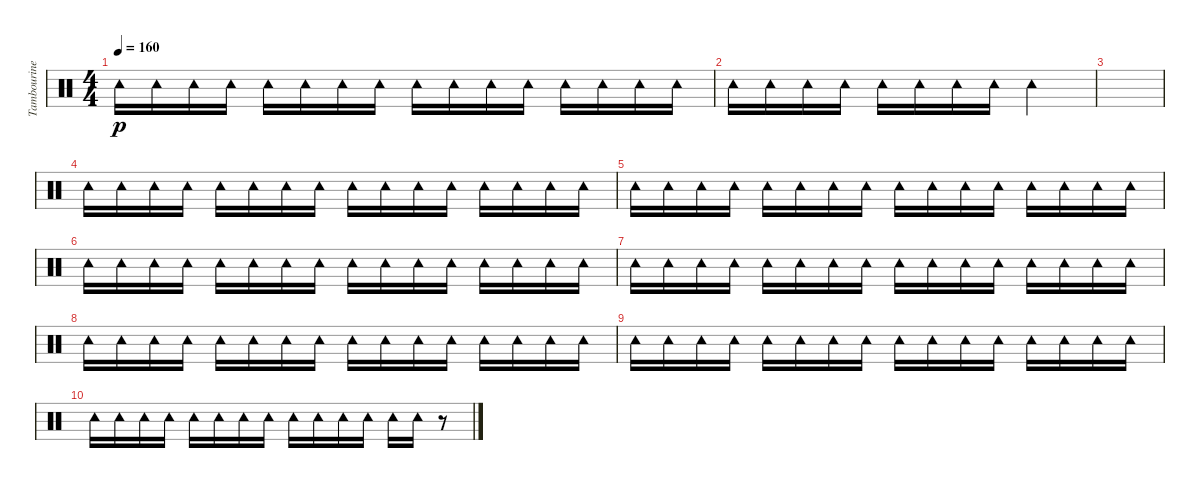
\track ("Tambourine" "Tambourine") {instrument percussion}
\staff {score}
\articulation defaults
\ts (4 4)
\tempo 160
\clef neutral
\ks c "Tambourine (hit)".16{dy p} "Tambourine (hit)".16 "Tambourine (hit)".16 "Tambourine (hit)".16 "Tambourine (hit)".16 "Tambourine (hit)".16 "Tambourine (hit)".16 "Tambourine (hit)".16 "Tambourine (hit)".16 "Tambourine (hit)".16 "Tambourine (hit)".16 "Tambourine (hit)".16 "Tambourine (hit)".16 "Tambourine (hit)".16 "Tambourine (hit)".16 "Tambourine (hit)".16
|
"Tambourine (hit)".16 "Tambourine (hit)".16 "Tambourine (hit)".16 "Tambourine (hit)".16 "Tambourine (hit)".16 "Tambourine (hit)".16 "Tambourine (hit)".16 "Tambourine (hit)".16 "Tambourine (hit)".2 |
|
"Tambourine (hit)".16 "Tambourine (hit)".16 "Tambourine (hit)".16 "Tambourine (hit)".16 "Tambourine (hit)".16 "Tambourine (hit)".16 "Tambourine (hit)".16 "Tambourine (hit)".16 "Tambourine (hit)".16 "Tambourine (hit)".16 "Tambourine (hit)".16 "Tambourine (hit)".16 "Tambourine (hit)".16 "Tambourine (hit)".16 "Tambourine (hit)".16 "Tambourine (hit)".16 |
"Tambourine (hit)".16 "Tambourine (hit)".16 "Tambourine (hit)".16 "Tambourine (hit)".16 "Tambourine (hit)".16 "Tambourine (hit)".16 "Tambourine (hit)".16 "Tambourine (hit)".16 "Tambourine (hit)".16 "Tambourine (hit)".16 "Tambourine (hit)".16 "Tambourine (hit)".16 "Tambourine (hit)".16 "Tambourine (hit)".16 "Tambourine (hit)".16 "Tambourine (hit)".16 |
"Tambourine (hit)".16 "Tambourine (hit)".16 "Tambourine (hit)".16 "Tambourine (hit)".16 "Tambourine (hit)".16 "Tambourine (hit)".16 "Tambourine (hit)".16 "Tambourine (hit)".16 "Tambourine (hit)".16 "Tambourine (hit)".16 "Tambourine (hit)".16 "Tambourine (hit)".16 "Tambourine (hit)".16 "Tambourine (hit)".16 "Tambourine (hit)".16 "Tambourine (hit)".16 |
"Tambourine (hit)".16 "Tambourine (hit)".16 "Tambourine (hit)".16 "Tambourine (hit)".16 "Tambourine (hit)".16 "Tambourine (hit)".16 "Tambourine (hit)".16 "Tambourine (hit)".16 "Tambourine (hit)".16 "Tambourine (hit)".16 "Tambourine (hit)".16 "Tambourine (hit)".16 "Tambourine (hit)".16 "Tambourine (hit)".16 "Tambourine (hit)".16 "Tambourine (hit)".16 |
"Tambourine (hit)".16 "Tambourine (hit)".16 "Tambourine (hit)".16 "Tambourine (hit)".16 "Tambourine (hit)".16 "Tambourine (hit)".16 "Tambourine (hit)".16 "Tambourine (hit)".16 "Tambourine (hit)".16 "Tambourine (hit)".16 "Tambourine (hit)".16 "Tambourine (hit)".16 "Tambourine (hit)".16 "Tambourine (hit)".16 "Tambourine (hit)".16 "Tambourine (hit)".16 |
"Tambourine (hit)".16 "Tambourine (hit)".16 "Tambourine (hit)".16 "Tambourine (hit)".16 "Tambourine (hit)".16 "Tambourine (hit)".16 "Tambourine (hit)".16 "Tambourine (hit)".16 "Tambourine (hit)".16 "Tambourine (hit)".16 "Tambourine (hit)".16 "Tambourine (hit)".16 "Tambourine (hit)".16 "Tambourine (hit)".16 "Tambourine (hit)".16 "Tambourine (hit)".16 |
"Tambourine (hit)".16 "Tambourine (hit)".16 "Tambourine (hit)".16 "Tambourine (hit)".16 "Tambourine (hit)".16 "Tambourine (hit)".16 "Tambourine (hit)".16 "Tambourine (hit)".16 "Tambourine (hit)".16 "Tambourine (hit)".16 "Tambourine (hit)".16 "Tambourine (hit)".16 "Tambourine (hit)".16 "Tambourine (hit)".16 r.8
